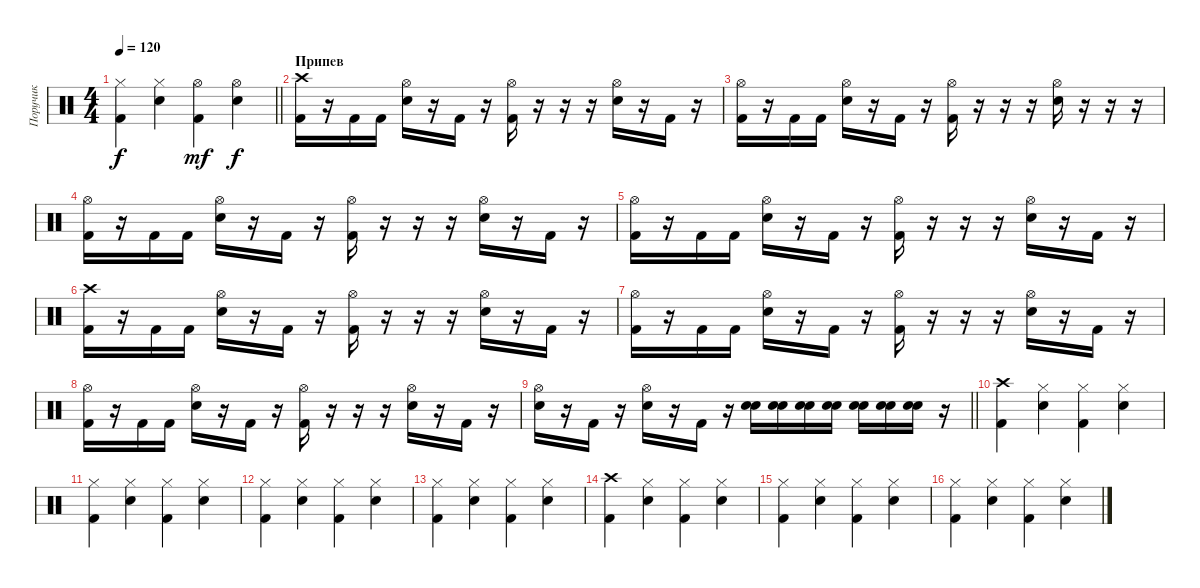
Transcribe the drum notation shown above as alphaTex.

\track ("Поручик" "Поручик") {instrument percussion}
\staff {score}
\articulation defaults
\ts (4 4)
\tempo 120
\clef neutral
\barLineRight lightlight
\ks c
("Hi-Hat (closed)" "Kick (hit) 2").4{dy f} ("Hi-Hat (closed)" "Snare (hit) 2").4 ("Hi-Hat (open)" "Kick (hit) 2").4{dy mf} ("Hi-Hat (open)" "Snare (hit) 2").4{dy f} |
\section ("" "Припев")
("Crash high (hit)" "Kick (hit) 2").16 r.16 "Kick (hit) 2".16 "Kick (hit) 2".16 ("Hi-Hat (open)" "Snare (hit) 2").16 r.16 "Kick (hit) 2".16 r.16 ("Hi-Hat (open)" "Kick (hit) 2").16 r.16 r.16 r.16 ("Hi-Hat (open)" "Snare (hit) 2").16 r.16 "Kick (hit) 2".16 r.16 |
("Hi-Hat (open)" "Kick (hit) 2").16 r.16 "Kick (hit) 2".16 "Kick (hit) 2".16 ("Hi-Hat (open)" "Snare (hit) 2").16 r.16 "Kick (hit) 2".16 r.16 ("Hi-Hat (open)" "Kick (hit) 2").16 r.16 r.16 r.16 ("Hi-Hat (open)" "Snare (hit) 2").16 r.16 r.16 r.16 |
("Hi-Hat (open)" "Kick (hit) 2").16 r.16 "Kick (hit) 2".16 "Kick (hit) 2".16 ("Hi-Hat (open)" "Snare (hit) 2").16 r.16 "Kick (hit) 2".16 r.16 ("Hi-Hat (open)" "Kick (hit) 2").16 r.16 r.16 r.16 ("Hi-Hat (open)" "Snare (hit) 2").16 r.16 "Kick (hit) 2".16 r.16 |
("Hi-Hat (open)" "Kick (hit) 2").16 r.16 "Kick (hit) 2".16 "Kick (hit) 2".16 ("Hi-Hat (open)" "Snare (hit) 2").16 r.16 "Kick (hit) 2".16 r.16 ("Hi-Hat (open)" "Kick (hit) 2").16 r.16 r.16 r.16 ("Hi-Hat (open)" "Snare (hit) 2").16 r.16 "Kick (hit) 2".16 r.16 |
("Crash high (hit)" "Kick (hit) 2").16 r.16 "Kick (hit) 2".16 "Kick (hit) 2".16 ("Hi-Hat (open)" "Snare (hit) 2").16 r.16 "Kick (hit) 2".16 r.16 ("Hi-Hat (open)" "Kick (hit) 2").16 r.16 r.16 r.16 ("Hi-Hat (open)" "Snare (hit) 2").16 r.16 "Kick (hit) 2".16 r.16 |
("Hi-Hat (open)" "Kick (hit) 2").16 r.16 "Kick (hit) 2".16 "Kick (hit) 2".16 ("Hi-Hat (open)" "Snare (hit) 2").16 r.16 "Kick (hit) 2".16 r.16 ("Hi-Hat (open)" "Kick (hit) 2").16 r.16 r.16 r.16 ("Hi-Hat (open)" "Snare (hit) 2").16 r.16 "Kick (hit) 2".16 r.16 |
("Hi-Hat (open)" "Kick (hit) 2").16 r.16 "Kick (hit) 2".16 "Kick (hit) 2".16 ("Hi-Hat (open)" "Snare (hit) 2").16 r.16 "Kick (hit) 2".16 r.16 ("Hi-Hat (open)" "Kick (hit) 2").16 r.16 r.16 r.16 ("Hi-Hat (open)" "Snare (hit) 2").16 r.16 "Kick (hit) 2".16 r.16 |
\barLineRight lightlight
("Hi-Hat (open)" "Snare (hit) 2").16 r.16 "Kick (hit) 2".16 r.16 ("Hi-Hat (open)" "Snare (hit) 2").16 r.16 "Kick (hit) 2".16 r.16 ("Snare (hit) 2" "Snare (hit) 2").16 ("Snare (hit) 2" "Snare (hit) 2").16 ("Snare (hit) 2" "Snare (hit) 2").16 ("Snare (hit) 2" "Snare (hit) 2").16 ("Snare (hit) 2" "Snare (hit) 2").16 ("Snare (hit) 2" "Snare (hit) 2").16 ("Snare (hit) 2" "Snare (hit) 2").16 r.16 |
("Crash high (hit)" "Kick (hit) 2").4 ("Hi-Hat (closed)" "Snare (hit) 2").4 ("Hi-Hat (closed)" "Kick (hit) 2").4 ("Hi-Hat (closed)" "Snare (hit) 2").4 |
("Hi-Hat (closed)" "Kick (hit) 2").4 ("Hi-Hat (closed)" "Snare (hit) 2").4 ("Hi-Hat (closed)" "Kick (hit) 2").4 ("Hi-Hat (closed)" "Snare (hit) 2").4 |
("Hi-Hat (closed)" "Kick (hit) 2").4 ("Hi-Hat (closed)" "Snare (hit) 2").4 ("Hi-Hat (closed)" "Kick (hit) 2").4 ("Hi-Hat (closed)" "Snare (hit) 2").4 |
("Hi-Hat (closed)" "Kick (hit) 2").4 ("Hi-Hat (closed)" "Snare (hit) 2").4 ("Hi-Hat (closed)" "Kick (hit) 2").4 ("Hi-Hat (closed)" "Snare (hit) 2").4 |
("Crash high (hit)" "Kick (hit) 2").4 ("Hi-Hat (closed)" "Snare (hit) 2").4 ("Hi-Hat (closed)" "Kick (hit) 2").4 ("Hi-Hat (closed)" "Snare (hit) 2").4 |
("Hi-Hat (closed)" "Kick (hit) 2").4 ("Hi-Hat (closed)" "Snare (hit) 2").4 ("Hi-Hat (closed)" "Kick (hit) 2").4 ("Hi-Hat (closed)" "Snare (hit) 2").4 |
("Hi-Hat (closed)" "Kick (hit) 2").4 ("Hi-Hat (closed)" "Snare (hit) 2").4 ("Hi-Hat (closed)" "Kick (hit) 2").4 ("Hi-Hat (closed)" "Snare (hit) 2").4
